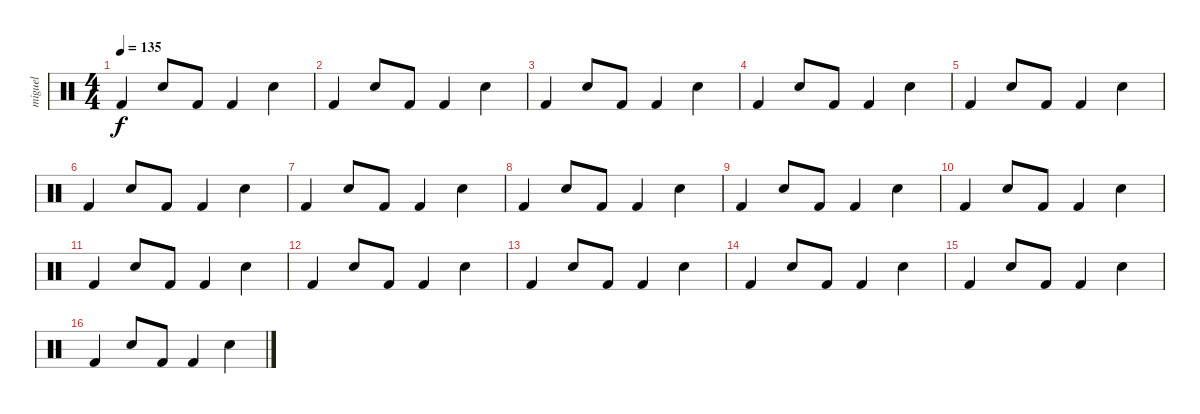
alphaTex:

\track ("miguel" "miguel") {instrument percussion}
\staff {score}
\articulation defaults
\ts (4 4)
\tempo 135
\clef neutral
\ks c "Kick (hit) 2".4{dy f} "Snare (hit) 2".8 "Kick (hit) 2".8 "Kick (hit) 2".4 "Snare (hit) 2".4
|
"Kick (hit) 2".4 "Snare (hit) 2".8 "Kick (hit) 2".8 "Kick (hit) 2".4 "Snare (hit) 2".4 |
"Kick (hit) 2".4 "Snare (hit) 2".8 "Kick (hit) 2".8 "Kick (hit) 2".4 "Snare (hit) 2".4 |
"Kick (hit) 2".4 "Snare (hit) 2".8 "Kick (hit) 2".8 "Kick (hit) 2".4 "Snare (hit) 2".4 |
"Kick (hit) 2".4 "Snare (hit) 2".8 "Kick (hit) 2".8 "Kick (hit) 2".4 "Snare (hit) 2".4 |
"Kick (hit) 2".4 "Snare (hit) 2".8 "Kick (hit) 2".8 "Kick (hit) 2".4 "Snare (hit) 2".4 |
"Kick (hit) 2".4 "Snare (hit) 2".8 "Kick (hit) 2".8 "Kick (hit) 2".4 "Snare (hit) 2".4 |
"Kick (hit) 2".4 "Snare (hit) 2".8 "Kick (hit) 2".8 "Kick (hit) 2".4 "Snare (hit) 2".4 |
"Kick (hit) 2".4 "Snare (hit) 2".8 "Kick (hit) 2".8 "Kick (hit) 2".4 "Snare (hit) 2".4 |
"Kick (hit) 2".4 "Snare (hit) 2".8 "Kick (hit) 2".8 "Kick (hit) 2".4 "Snare (hit) 2".4 |
"Kick (hit) 2".4 "Snare (hit) 2".8 "Kick (hit) 2".8 "Kick (hit) 2".4 "Snare (hit) 2".4 |
"Kick (hit) 2".4 "Snare (hit) 2".8 "Kick (hit) 2".8 "Kick (hit) 2".4 "Snare (hit) 2".4 |
"Kick (hit) 2".4 "Snare (hit) 2".8 "Kick (hit) 2".8 "Kick (hit) 2".4 "Snare (hit) 2".4 |
"Kick (hit) 2".4 "Snare (hit) 2".8 "Kick (hit) 2".8 "Kick (hit) 2".4 "Snare (hit) 2".4 |
"Kick (hit) 2".4 "Snare (hit) 2".8 "Kick (hit) 2".8 "Kick (hit) 2".4 "Snare (hit) 2".4 |
"Kick (hit) 2".4 "Snare (hit) 2".8 "Kick (hit) 2".8 "Kick (hit) 2".4 "Snare (hit) 2".4
